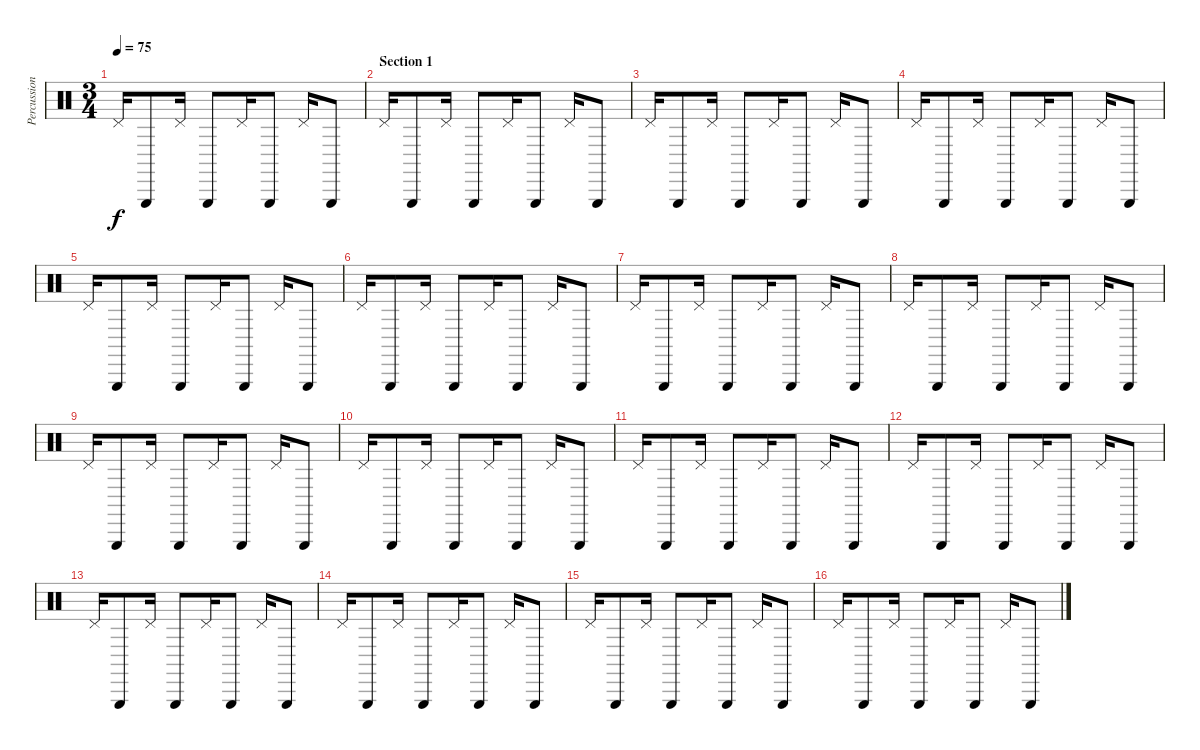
\track ("Percussions" "Percussion") {instrument percussion}
\staff {score}
\articulation defaults
\ts (3 4)
\tempo 75
\clef neutral
\ks c "Pedal Hi-Hat (hit)".16{dy f} "Triangle (hit)".8 "Pedal Hi-Hat (hit)".16 "Triangle (hit)".8 "Pedal Hi-Hat (hit)".16 "Triangle (hit)".8 "Pedal Hi-Hat (hit)".16 "Triangle (hit)".8
|
\section ("" "Section 1")
"Pedal Hi-Hat (hit)".16 "Triangle (hit)".8 "Pedal Hi-Hat (hit)".16 "Triangle (hit)".8 "Pedal Hi-Hat (hit)".16 "Triangle (hit)".8 "Pedal Hi-Hat (hit)".16 "Triangle (hit)".8 |
"Pedal Hi-Hat (hit)".16 "Triangle (hit)".8 "Pedal Hi-Hat (hit)".16 "Triangle (hit)".8 "Pedal Hi-Hat (hit)".16 "Triangle (hit)".8 "Pedal Hi-Hat (hit)".16 "Triangle (hit)".8 |
"Pedal Hi-Hat (hit)".16 "Triangle (hit)".8 "Pedal Hi-Hat (hit)".16 "Triangle (hit)".8 "Pedal Hi-Hat (hit)".16 "Triangle (hit)".8 "Pedal Hi-Hat (hit)".16 "Triangle (hit)".8 |
"Pedal Hi-Hat (hit)".16 "Triangle (hit)".8 "Pedal Hi-Hat (hit)".16 "Triangle (hit)".8 "Pedal Hi-Hat (hit)".16 "Triangle (hit)".8 "Pedal Hi-Hat (hit)".16 "Triangle (hit)".8 |
"Pedal Hi-Hat (hit)".16 "Triangle (hit)".8 "Pedal Hi-Hat (hit)".16 "Triangle (hit)".8 "Pedal Hi-Hat (hit)".16 "Triangle (hit)".8 "Pedal Hi-Hat (hit)".16 "Triangle (hit)".8 |
"Pedal Hi-Hat (hit)".16 "Triangle (hit)".8 "Pedal Hi-Hat (hit)".16 "Triangle (hit)".8 "Pedal Hi-Hat (hit)".16 "Triangle (hit)".8 "Pedal Hi-Hat (hit)".16 "Triangle (hit)".8 |
"Pedal Hi-Hat (hit)".16 "Triangle (hit)".8 "Pedal Hi-Hat (hit)".16 "Triangle (hit)".8 "Pedal Hi-Hat (hit)".16 "Triangle (hit)".8 "Pedal Hi-Hat (hit)".16 "Triangle (hit)".8 |
"Pedal Hi-Hat (hit)".16 "Triangle (hit)".8 "Pedal Hi-Hat (hit)".16 "Triangle (hit)".8 "Pedal Hi-Hat (hit)".16 "Triangle (hit)".8 "Pedal Hi-Hat (hit)".16 "Triangle (hit)".8 |
"Pedal Hi-Hat (hit)".16 "Triangle (hit)".8 "Pedal Hi-Hat (hit)".16 "Triangle (hit)".8 "Pedal Hi-Hat (hit)".16 "Triangle (hit)".8 "Pedal Hi-Hat (hit)".16 "Triangle (hit)".8 |
"Pedal Hi-Hat (hit)".16 "Triangle (hit)".8 "Pedal Hi-Hat (hit)".16 "Triangle (hit)".8 "Pedal Hi-Hat (hit)".16 "Triangle (hit)".8 "Pedal Hi-Hat (hit)".16 "Triangle (hit)".8 |
"Pedal Hi-Hat (hit)".16 "Triangle (hit)".8 "Pedal Hi-Hat (hit)".16 "Triangle (hit)".8 "Pedal Hi-Hat (hit)".16 "Triangle (hit)".8 "Pedal Hi-Hat (hit)".16 "Triangle (hit)".8 |
"Pedal Hi-Hat (hit)".16 "Triangle (hit)".8 "Pedal Hi-Hat (hit)".16 "Triangle (hit)".8 "Pedal Hi-Hat (hit)".16 "Triangle (hit)".8 "Pedal Hi-Hat (hit)".16 "Triangle (hit)".8 |
"Pedal Hi-Hat (hit)".16 "Triangle (hit)".8 "Pedal Hi-Hat (hit)".16 "Triangle (hit)".8 "Pedal Hi-Hat (hit)".16 "Triangle (hit)".8 "Pedal Hi-Hat (hit)".16 "Triangle (hit)".8 |
"Pedal Hi-Hat (hit)".16 "Triangle (hit)".8 "Pedal Hi-Hat (hit)".16 "Triangle (hit)".8 "Pedal Hi-Hat (hit)".16 "Triangle (hit)".8 "Pedal Hi-Hat (hit)".16 "Triangle (hit)".8 |
"Pedal Hi-Hat (hit)".16 "Triangle (hit)".8 "Pedal Hi-Hat (hit)".16 "Triangle (hit)".8 "Pedal Hi-Hat (hit)".16 "Triangle (hit)".8 "Pedal Hi-Hat (hit)".16 "Triangle (hit)".8
